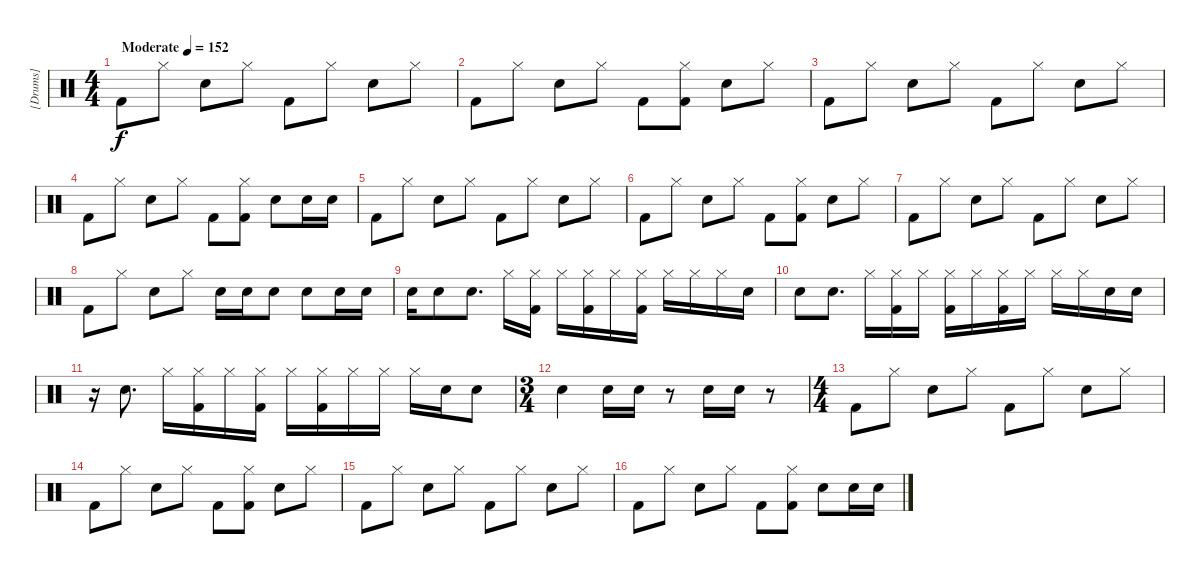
\track ("[Drums]" "[Drums]") {instrument percussion}
\staff {score}
\articulation defaults
\ts (4 4)
\tempo (152 "Moderate")
\clef neutral
\ks c "Kick (hit) 2".8{dy f} "Hi-Hat (closed)".8 "Electric Snare (hit)".8 "Hi-Hat (closed)".8 "Kick (hit) 2".8 "Hi-Hat (closed)".8 "Electric Snare (hit)".8 "Hi-Hat (closed)".8
|
"Kick (hit) 2".8 "Hi-Hat (closed)".8 "Electric Snare (hit)".8 "Hi-Hat (closed)".8 "Kick (hit) 2".8 ("Hi-Hat (closed)" "Kick (hit) 2").8 "Electric Snare (hit)".8 "Hi-Hat (closed)".8 |
"Kick (hit) 2".8 "Hi-Hat (closed)".8 "Electric Snare (hit)".8 "Hi-Hat (closed)".8 "Kick (hit) 2".8 "Hi-Hat (closed)".8 "Electric Snare (hit)".8 "Hi-Hat (closed)".8 |
"Kick (hit) 2".8 "Hi-Hat (closed)".8 "Electric Snare (hit)".8 "Hi-Hat (closed)".8 "Kick (hit) 2".8 ("Hi-Hat (closed)" "Kick (hit) 2").8 "Electric Snare (hit)".8 "Electric Snare (hit)".16 "Electric Snare (hit)".16 |
"Kick (hit) 2".8 "Hi-Hat (closed)".8 "Electric Snare (hit)".8 "Hi-Hat (closed)".8 "Kick (hit) 2".8 "Hi-Hat (closed)".8 "Electric Snare (hit)".8 "Hi-Hat (closed)".8 |
"Kick (hit) 2".8 "Hi-Hat (closed)".8 "Electric Snare (hit)".8 "Hi-Hat (closed)".8 "Kick (hit) 2".8 ("Hi-Hat (closed)" "Kick (hit) 2").8 "Electric Snare (hit)".8 "Hi-Hat (closed)".8 |
"Kick (hit) 2".8 "Hi-Hat (closed)".8 "Electric Snare (hit)".8 "Hi-Hat (closed)".8 "Kick (hit) 2".8 "Hi-Hat (closed)".8 "Electric Snare (hit)".8 "Hi-Hat (closed)".8 |
"Kick (hit) 2".8 "Hi-Hat (closed)".8 "Electric Snare (hit)".8 "Hi-Hat (closed)".8 "Electric Snare (hit)".16 "Electric Snare (hit)".16 "Electric Snare (hit)".8 "Electric Snare (hit)".8 "Electric Snare (hit)".16 "Electric Snare (hit)".16 |
"Electric Snare (hit)".16 "Electric Snare (hit)".8 "Electric Snare (hit)".8{d} "Hi-Hat (closed)".16 ("Hi-Hat (closed)" "Kick (hit) 2").16 "Hi-Hat (closed)".16 ("Hi-Hat (closed)" "Kick (hit) 2").16 "Hi-Hat (closed)".16 ("Hi-Hat (closed)" "Kick (hit) 2").16 "Hi-Hat (closed)".16 "Hi-Hat (closed)".16 "Hi-Hat (closed)".16 "Electric Snare (hit)".16 |
"Electric Snare (hit)".8 "Electric Snare (hit)".8{d} "Hi-Hat (closed)".16 ("Hi-Hat (closed)" "Kick (hit) 2").16 "Hi-Hat (closed)".16 ("Hi-Hat (closed)" "Kick (hit) 2").16 "Hi-Hat (closed)".16 ("Hi-Hat (closed)" "Kick (hit) 2").16 "Hi-Hat (closed)".16 "Hi-Hat (closed)".16 "Hi-Hat (closed)".16 "Electric Snare (hit)".16 "Electric Snare (hit)".16 |
r.16 "Electric Snare (hit)".8{d} "Hi-Hat (closed)".16 ("Hi-Hat (closed)" "Kick (hit) 2").16 "Hi-Hat (closed)".16 ("Hi-Hat (closed)" "Kick (hit) 2").16 "Hi-Hat (closed)".16 ("Hi-Hat (closed)" "Kick (hit) 2").16 "Hi-Hat (closed)".16 "Hi-Hat (closed)".16 "Hi-Hat (closed)".16 "Electric Snare (hit)".16 "Electric Snare (hit)".8 |
\ts (3 4)
"Electric Snare (hit)".4 "Electric Snare (hit)".16 "Electric Snare (hit)".16 r.8 "Electric Snare (hit)".16 "Electric Snare (hit)".16 r.8 |
\ts (4 4)
"Kick (hit) 2".8 "Hi-Hat (closed)".8 "Electric Snare (hit)".8 "Hi-Hat (closed)".8 "Kick (hit) 2".8 "Hi-Hat (closed)".8 "Electric Snare (hit)".8 "Hi-Hat (closed)".8 |
"Kick (hit) 2".8 "Hi-Hat (closed)".8 "Electric Snare (hit)".8 "Hi-Hat (closed)".8 "Kick (hit) 2".8 ("Hi-Hat (closed)" "Kick (hit) 2").8 "Electric Snare (hit)".8 "Hi-Hat (closed)".8 |
"Kick (hit) 2".8 "Hi-Hat (closed)".8 "Electric Snare (hit)".8 "Hi-Hat (closed)".8 "Kick (hit) 2".8 "Hi-Hat (closed)".8 "Electric Snare (hit)".8 "Hi-Hat (closed)".8 |
"Kick (hit) 2".8 "Hi-Hat (closed)".8 "Electric Snare (hit)".8 "Hi-Hat (closed)".8 "Kick (hit) 2".8 ("Hi-Hat (closed)" "Kick (hit) 2").8 "Electric Snare (hit)".8 "Electric Snare (hit)".16 "Electric Snare (hit)".16
